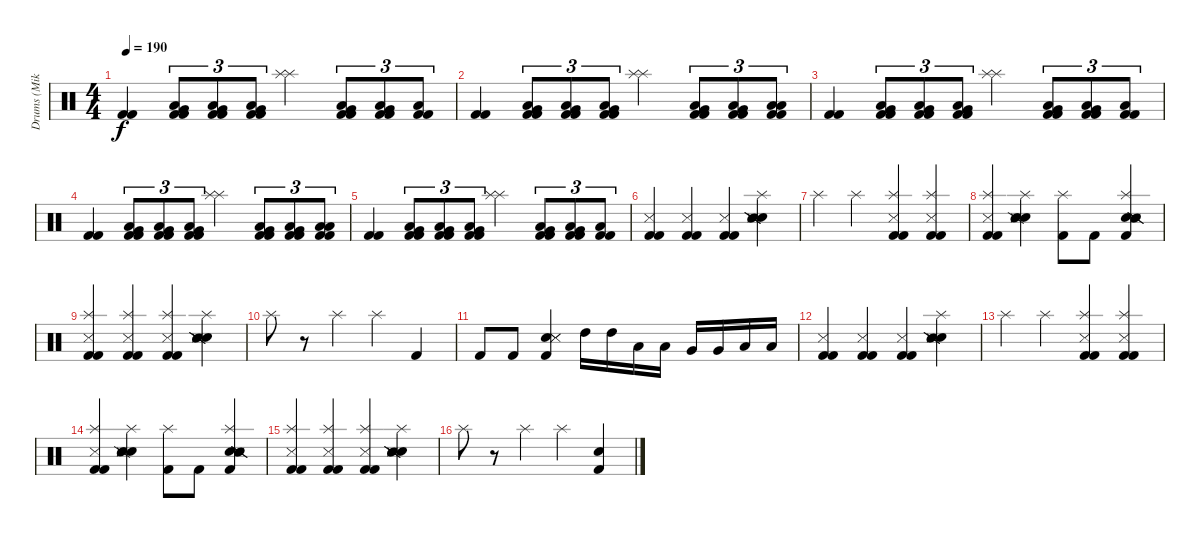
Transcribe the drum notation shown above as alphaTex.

\track ("Drums (Mike Justian)" "Drums (Mik") {instrument percussion}
\staff {score}
\articulation defaults
\ts (4 4)
\tempo 190
\clef neutral
\ks c
("Kick (hit) 2" "Kick (hit) 2").4{dy f} ("Low Tom (hit)" "Very Low Tom (hit)" "Kick (hit) 2" "Kick (hit) 2").8{tu (3 2)} ("Very Low Tom (hit)" "Low Floor Tom (hit)" "Kick (hit) 2" "Kick (hit) 2").8{tu (3 2)} ("Low Tom (hit)" "Very Low Tom (hit)" "Kick (hit) 2" "Kick (hit) 2").8{tu (3 2)} ("Splash (hit)" "Splash (hit)").4 ("Very Low Tom (hit)" "Low Floor Tom (hit)" "Kick (hit) 2" "Kick (hit) 2").8{tu (3 2)} ("Low Tom (hit)" "Very Low Tom (hit)" "Kick (hit) 2" "Kick (hit) 2").8{tu (3 2)} ("Low Tom (hit)" "Kick (hit) 2" "Kick (hit) 2").8{tu (3 2)} |
("Kick (hit) 2" "Kick (hit) 2").4 ("Low Tom (hit)" "Very Low Tom (hit)" "Kick (hit) 2" "Kick (hit) 2").8{tu (3 2)} ("Very Low Tom (hit)" "Low Floor Tom (hit)" "Kick (hit) 2" "Kick (hit) 2").8{tu (3 2)} ("Low Tom (hit)" "Very Low Tom (hit)" "Kick (hit) 2" "Kick (hit) 2").8{tu (3 2)} ("Splash (hit)" "Splash (hit)").4 ("Very Low Tom (hit)" "Low Floor Tom (hit)" "Kick (hit) 2" "Kick (hit) 2").8{tu (3 2)} ("Low Tom (hit)" "Very Low Tom (hit)" "Kick (hit) 2" "Kick (hit) 2").8{tu (3 2)} ("Low Tom (hit)" "Low Tom (hit)" "Kick (hit) 2" "Kick (hit) 2").8{tu (3 2)} |
("Kick (hit) 2" "Kick (hit) 2").4 ("Low Tom (hit)" "Very Low Tom (hit)" "Kick (hit) 2" "Kick (hit) 2").8{tu (3 2)} ("Very Low Tom (hit)" "Low Floor Tom (hit)" "Kick (hit) 2" "Kick (hit) 2").8{tu (3 2)} ("Low Tom (hit)" "Very Low Tom (hit)" "Kick (hit) 2" "Kick (hit) 2").8{tu (3 2)} ("Splash (hit)" "Splash (hit)").4 ("Very Low Tom (hit)" "Low Floor Tom (hit)" "Kick (hit) 2" "Kick (hit) 2").8{tu (3 2)} ("Low Tom (hit)" "Very Low Tom (hit)" "Kick (hit) 2" "Kick (hit) 2").8{tu (3 2)} ("Low Tom (hit)" "Kick (hit) 2" "Kick (hit) 2").8{tu (3 2)} |
("Kick (hit) 2" "Kick (hit) 2").4 ("Low Tom (hit)" "Very Low Tom (hit)" "Kick (hit) 2" "Kick (hit) 2").8{tu (3 2)} ("Very Low Tom (hit)" "Low Floor Tom (hit)" "Kick (hit) 2" "Kick (hit) 2").8{tu (3 2)} ("Low Tom (hit)" "Very Low Tom (hit)" "Kick (hit) 2" "Kick (hit) 2").8{tu (3 2)} ("Splash (hit)" "Splash (hit)").4 ("Very Low Tom (hit)" "Low Floor Tom (hit)" "Kick (hit) 2" "Kick (hit) 2").8{tu (3 2)} ("Low Tom (hit)" "Very Low Tom (hit)" "Kick (hit) 2" "Kick (hit) 2").8{tu (3 2)} ("Low Tom (hit)" "Low Tom (hit)" "Kick (hit) 2" "Kick (hit) 2").8{tu (3 2)} |
("Kick (hit) 2" "Kick (hit) 2").4 ("Low Tom (hit)" "Very Low Tom (hit)" "Kick (hit) 2" "Kick (hit) 2").8{tu (3 2)} ("Very Low Tom (hit)" "Low Floor Tom (hit)" "Kick (hit) 2" "Kick (hit) 2").8{tu (3 2)} ("Low Tom (hit)" "Very Low Tom (hit)" "Kick (hit) 2" "Kick (hit) 2").8{tu (3 2)} ("Splash (hit)" "Splash (hit)").4 ("Very Low Tom (hit)" "Low Floor Tom (hit)" "Kick (hit) 2" "Kick (hit) 2").8{tu (3 2)} ("Low Tom (hit)" "Very Low Tom (hit)" "Kick (hit) 2" "Kick (hit) 2").8{tu (3 2)} ("Low Tom (hit)" "Kick (hit) 2" "Kick (hit) 2").8{tu (3 2)} |
("Kick (hit) 2" "Snare (side stick) 3" "Kick (hit) 2").4 ("Kick (hit) 2" "Snare (side stick) 3" "Kick (hit) 2").4 ("Kick (hit) 2" "Snare (side stick) 3" "Kick (hit) 2").4 ("Splash (hit)" "Electric Snare (hit)" "Snare (side stick) 2" "Snare (side stick) 2" "Snare (side stick) 3" "Snare (side stick) 3").4 |
"Splash (hit)".4 "Splash (hit)".4 ("Splash (hit)" "Kick (hit) 2" "Snare (side stick) 3" "Kick (hit) 2").4 ("Splash (hit)" "Kick (hit) 2" "Snare (side stick) 3" "Kick (hit) 2").4 |
("Splash (hit)" "Kick (hit) 2" "Snare (side stick) 3" "Kick (hit) 2").4 ("Splash (hit)" "Electric Snare (hit)" "Snare (hit)" "Snare (side stick) 2" "Snare (side stick) 3" "Snare (side stick) 3").4 ("Splash (hit)" "Kick (hit) 2").8 "Kick (hit) 2".8 ("Splash (hit)" "Electric Snare (hit)" "Snare (side stick) 2" "Snare (side stick) 2" "Snare (side stick) 3" "Kick (hit) 2").4 |
("Splash (hit)" "Kick (hit) 2" "Snare (side stick) 3" "Kick (hit) 2").4 ("Splash (hit)" "Kick (hit) 2" "Snare (side stick) 3" "Kick (hit) 2").4 ("Splash (hit)" "Kick (hit) 2" "Snare (side stick) 3" "Kick (hit) 2").4 ("Splash (hit)" "Electric Snare (hit)" "Snare (side stick) 2" "Snare (side stick) 2" "Snare (side stick) 3" "Snare (side stick) 3").4 |
"Splash (hit)".8 r.8 "Splash (hit)".4 "Splash (hit)".4 "Kick (hit) 2".4 |
"Kick (hit) 2".8 "Kick (hit) 2".8 ("Electric Snare (hit)" "Kick (hit) 2" "Snare (side stick) 3" "Snare (side stick) 3").4 "High Tom (hit)".16 "High Tom (hit)".16 "Low Tom (hit)".16 "Low Tom (hit)".16 "Very Low Tom (hit)".16 "Very Low Tom (hit)".16 "Low Floor Tom (hit)".16 "Low Floor Tom (hit)".16 |
("Kick (hit) 2" "Snare (side stick) 3" "Kick (hit) 2").4 ("Kick (hit) 2" "Snare (side stick) 3" "Kick (hit) 2").4 ("Kick (hit) 2" "Snare (side stick) 3" "Kick (hit) 2").4 ("Splash (hit)" "Electric Snare (hit)" "Snare (side stick) 2" "Snare (side stick) 2" "Snare (side stick) 3" "Snare (side stick) 3").4 |
"Splash (hit)".4 "Splash (hit)".4 ("Splash (hit)" "Kick (hit) 2" "Snare (side stick) 3" "Kick (hit) 2").4 ("Splash (hit)" "Kick (hit) 2" "Snare (side stick) 3" "Kick (hit) 2").4 |
("Splash (hit)" "Kick (hit) 2" "Snare (side stick) 3" "Kick (hit) 2").4 ("Splash (hit)" "Electric Snare (hit)" "Snare (hit)" "Snare (side stick) 2" "Snare (side stick) 3" "Snare (side stick) 3").4 ("Splash (hit)" "Kick (hit) 2").8 "Kick (hit) 2".8 ("Splash (hit)" "Electric Snare (hit)" "Snare (side stick) 2" "Snare (side stick) 2" "Snare (side stick) 3" "Kick (hit) 2").4 |
("Splash (hit)" "Kick (hit) 2" "Snare (side stick) 3" "Kick (hit) 2").4 ("Splash (hit)" "Kick (hit) 2" "Snare (side stick) 3" "Kick (hit) 2").4 ("Splash (hit)" "Kick (hit) 2" "Snare (side stick) 3" "Kick (hit) 2").4 ("Splash (hit)" "Electric Snare (hit)" "Snare (side stick) 2" "Snare (side stick) 2" "Snare (side stick) 3" "Snare (side stick) 3").4 |
"Splash (hit)".8 r.8 "Splash (hit)".4 "Splash (hit)".4 ("Electric Snare (hit)" "Kick (hit) 2").4
